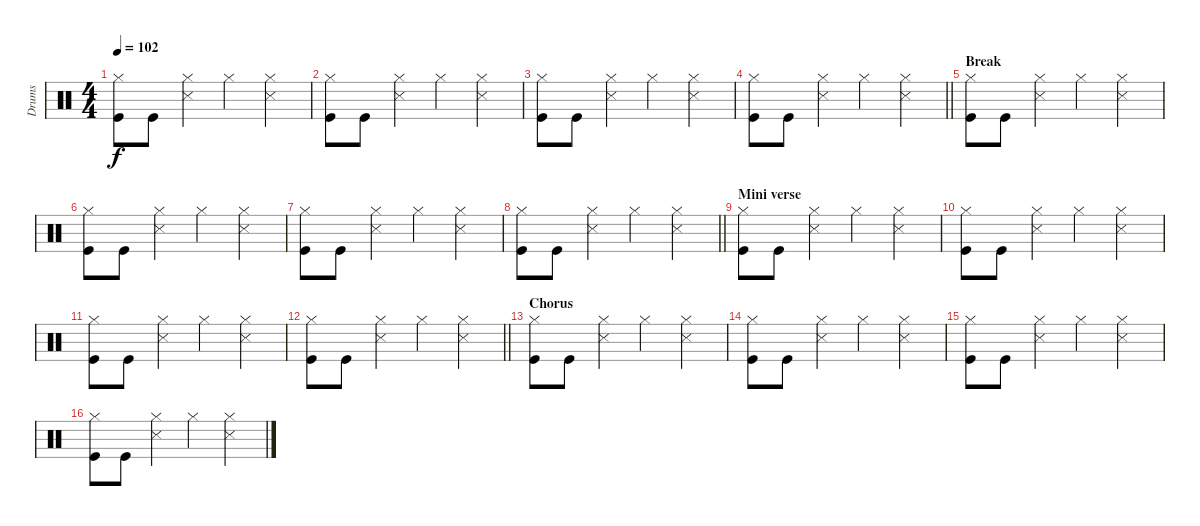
\track ("Drums" "Drums") {instrument percussion}
\staff {score}
\articulation defaults
\ts (4 4)
\tempo 102
\clef neutral
\ks c
("Hi-Hat (closed)" "Kick (hit)").8{dy f} "Kick (hit)".8 ("Hi-Hat (closed)" "Snare (side stick) 3").4 "Hi-Hat (closed)".4 ("Hi-Hat (closed)" "Snare (side stick) 3").4 |
("Hi-Hat (closed)" "Kick (hit)").8 "Kick (hit)".8 ("Hi-Hat (closed)" "Snare (side stick) 3").4 "Hi-Hat (closed)".4 ("Hi-Hat (closed)" "Snare (side stick) 3").4 |
("Hi-Hat (closed)" "Kick (hit)").8 "Kick (hit)".8 ("Hi-Hat (closed)" "Snare (side stick) 3").4 "Hi-Hat (closed)".4 ("Hi-Hat (closed)" "Snare (side stick) 3").4 |
\barLineRight lightlight
("Hi-Hat (closed)" "Kick (hit)").8 "Kick (hit)".8 ("Hi-Hat (closed)" "Snare (side stick) 3").4 "Hi-Hat (closed)".4 ("Hi-Hat (closed)" "Snare (side stick) 3").4 |
\section ("" "Break")
("Hi-Hat (closed)" "Kick (hit)").8 "Kick (hit)".8 ("Hi-Hat (closed)" "Snare (side stick) 3").4 "Hi-Hat (closed)".4 ("Hi-Hat (closed)" "Snare (side stick) 3").4 |
("Hi-Hat (closed)" "Kick (hit)").8 "Kick (hit)".8 ("Hi-Hat (closed)" "Snare (side stick) 3").4 "Hi-Hat (closed)".4 ("Hi-Hat (closed)" "Snare (side stick) 3").4 |
("Hi-Hat (closed)" "Kick (hit)").8 "Kick (hit)".8 ("Hi-Hat (closed)" "Snare (side stick) 3").4 "Hi-Hat (closed)".4 ("Hi-Hat (closed)" "Snare (side stick) 3").4 |
\barLineRight lightlight
("Hi-Hat (closed)" "Kick (hit)").8 "Kick (hit)".8 ("Hi-Hat (closed)" "Snare (side stick) 3").4 "Hi-Hat (closed)".4 ("Hi-Hat (closed)" "Snare (side stick) 3").4 |
\section ("" "Mini verse")
("Hi-Hat (closed)" "Kick (hit)").8 "Kick (hit)".8 ("Hi-Hat (closed)" "Snare (side stick) 3").4 "Hi-Hat (closed)".4 ("Hi-Hat (closed)" "Snare (side stick) 3").4 |
("Hi-Hat (closed)" "Kick (hit)").8 "Kick (hit)".8 ("Hi-Hat (closed)" "Snare (side stick) 3").4 "Hi-Hat (closed)".4 ("Hi-Hat (closed)" "Snare (side stick) 3").4 |
("Hi-Hat (closed)" "Kick (hit)").8 "Kick (hit)".8 ("Hi-Hat (closed)" "Snare (side stick) 3").4 "Hi-Hat (closed)".4 ("Hi-Hat (closed)" "Snare (side stick) 3").4 |
\barLineRight lightlight
("Hi-Hat (closed)" "Kick (hit)").8 "Kick (hit)".8 ("Hi-Hat (closed)" "Snare (side stick) 3").4 "Hi-Hat (closed)".4 ("Hi-Hat (closed)" "Snare (side stick) 3").4 |
\section ("" "Chorus")
("Hi-Hat (closed)" "Kick (hit)").8 "Kick (hit)".8 ("Hi-Hat (closed)" "Snare (side stick) 3").4 "Hi-Hat (closed)".4 ("Hi-Hat (closed)" "Snare (side stick) 3").4 |
("Hi-Hat (closed)" "Kick (hit)").8 "Kick (hit)".8 ("Hi-Hat (closed)" "Snare (side stick) 3").4 "Hi-Hat (closed)".4 ("Hi-Hat (closed)" "Snare (side stick) 3").4 |
("Hi-Hat (closed)" "Kick (hit)").8 "Kick (hit)".8 ("Hi-Hat (closed)" "Snare (side stick) 3").4 "Hi-Hat (closed)".4 ("Hi-Hat (closed)" "Snare (side stick) 3").4 |
("Hi-Hat (closed)" "Kick (hit)").8 "Kick (hit)".8 ("Hi-Hat (closed)" "Snare (side stick) 3").4 "Hi-Hat (closed)".4 ("Hi-Hat (closed)" "Snare (side stick) 3").4
